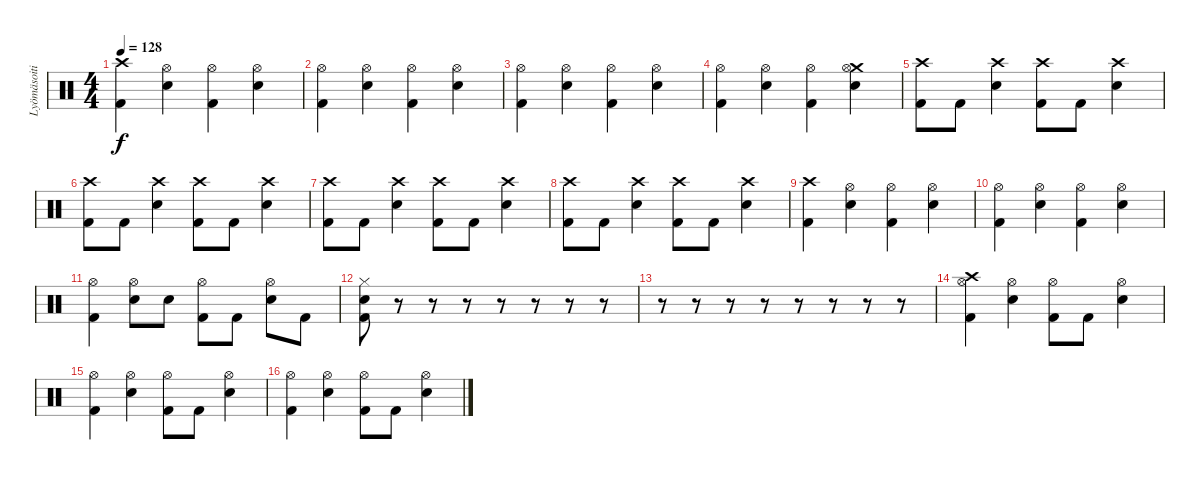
\track ("Lyömäsoitin" "Lyömäsoiti") {instrument percussion}
\staff {score}
\articulation defaults
\ts (4 4)
\tempo 128
\clef neutral
\ks c
("Crash high (hit)" "Kick (hit) 2").4{dy f} ("Hi-Hat (open)" "Electric Snare (hit)").4 ("Hi-Hat (open)" "Kick (hit) 2").4 ("Hi-Hat (open)" "Electric Snare (hit)").4 |
("Hi-Hat (open)" "Kick (hit) 2").4 ("Hi-Hat (open)" "Electric Snare (hit)").4 ("Hi-Hat (open)" "Kick (hit) 2").4 ("Hi-Hat (open)" "Electric Snare (hit)").4 |
("Hi-Hat (open)" "Kick (hit) 2").4 ("Hi-Hat (open)" "Electric Snare (hit)").4 ("Hi-Hat (open)" "Kick (hit) 2").4 ("Hi-Hat (open)" "Electric Snare (hit)").4 |
("Hi-Hat (open)" "Kick (hit) 2").4 ("Hi-Hat (open)" "Electric Snare (hit)").4 ("Hi-Hat (open)" "Kick (hit) 2").4 ("Crash medium (hit)" "Hi-Hat (open)" "Electric Snare (hit)").4 |
("Crash high (hit)" "Kick (hit) 2").8 "Kick (hit) 2".8 ("Crash high (hit)" "Electric Snare (hit)").4 ("Crash high (hit)" "Kick (hit) 2").8 "Kick (hit) 2".8 ("Crash high (hit)" "Electric Snare (hit)").4 |
("Crash high (hit)" "Kick (hit) 2").8 "Kick (hit) 2".8 ("Crash high (hit)" "Electric Snare (hit)").4 ("Crash high (hit)" "Kick (hit) 2").8 "Kick (hit) 2".8 ("Crash high (hit)" "Electric Snare (hit)").4 |
("Crash high (hit)" "Kick (hit) 2").8 "Kick (hit) 2".8 ("Crash high (hit)" "Electric Snare (hit)").4 ("Crash high (hit)" "Kick (hit) 2").8 "Kick (hit) 2".8 ("Crash high (hit)" "Electric Snare (hit)").4 |
("Crash high (hit)" "Kick (hit) 2").8 "Kick (hit) 2".8 ("Crash high (hit)" "Electric Snare (hit)").4 ("Crash high (hit)" "Kick (hit) 2").8 "Kick (hit) 2".8 ("Crash high (hit)" "Electric Snare (hit)").4 |
("Crash high (hit)" "Kick (hit) 2").4 ("Hi-Hat (open)" "Electric Snare (hit)").4 ("Hi-Hat (open)" "Kick (hit) 2").4 ("Hi-Hat (open)" "Electric Snare (hit)").4 |
("Hi-Hat (open)" "Kick (hit) 2").4 ("Hi-Hat (open)" "Electric Snare (hit)").4 ("Hi-Hat (open)" "Kick (hit) 2").4 ("Hi-Hat (open)" "Electric Snare (hit)").4 |
("Hi-Hat (open)" "Kick (hit) 2").4 ("Hi-Hat (open)" "Electric Snare (hit)").8 "Electric Snare (hit)".8 ("Hi-Hat (open)" "Kick (hit) 2").8 "Kick (hit) 2".8 ("Hi-Hat (open)" "Electric Snare (hit)").8 "Kick (hit) 2".8 |
("Hi-Hat (closed)" "Electric Snare (hit)" "Kick (hit) 2").8 r.8 r.8 r.8 r.8 r.8 r.8 r.8 |
r.8 r.8 r.8 r.8 r.8 r.8 r.8 r.8 |
("Crash high (hit)" "Hi-Hat (open)" "Kick (hit) 2").4 ("Hi-Hat (open)" "Electric Snare (hit)").4 ("Hi-Hat (open)" "Kick (hit) 2").8 "Kick (hit) 2".8 ("Hi-Hat (open)" "Electric Snare (hit)").4 |
("Hi-Hat (open)" "Kick (hit) 2").4 ("Hi-Hat (open)" "Electric Snare (hit)").4 ("Hi-Hat (open)" "Kick (hit) 2").8 "Kick (hit) 2".8 ("Hi-Hat (open)" "Electric Snare (hit)").4 |
("Hi-Hat (open)" "Kick (hit) 2").4 ("Hi-Hat (open)" "Electric Snare (hit)").4 ("Hi-Hat (open)" "Kick (hit) 2").8 "Kick (hit) 2".8 ("Hi-Hat (open)" "Electric Snare (hit)").4
